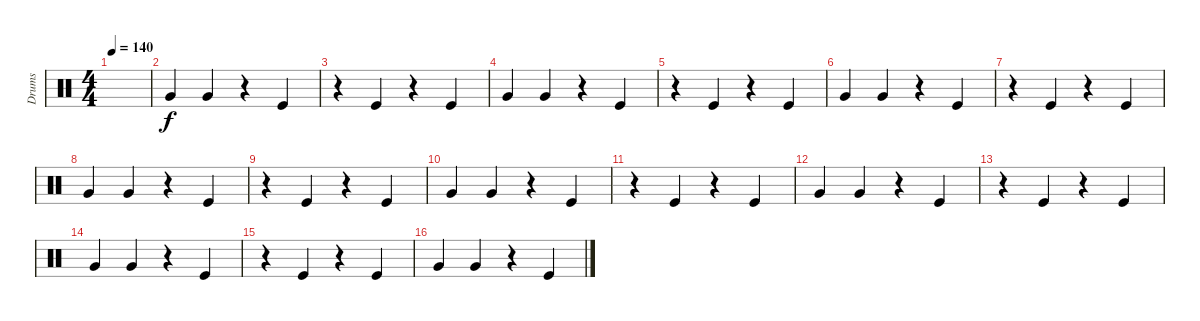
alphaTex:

\track ("Drums" "Drums") {instrument percussion}
\staff {score}
\articulation defaults
\ts (4 4)
\tempo 140
\clef neutral
\ks c
|
"Very Low Tom (hit)".4 "Very Low Tom (hit)".4 r.4 "Kick (hit)".4 |
r.4 "Kick (hit)".4 r.4 "Kick (hit)".4 |
"Very Low Tom (hit)".4 "Very Low Tom (hit)".4 r.4 "Kick (hit)".4 |
r.4 "Kick (hit)".4 r.4 "Kick (hit)".4 |
"Very Low Tom (hit)".4 "Very Low Tom (hit)".4 r.4 "Kick (hit)".4 |
r.4 "Kick (hit)".4 r.4 "Kick (hit)".4 |
"Very Low Tom (hit)".4 "Very Low Tom (hit)".4 r.4 "Kick (hit)".4 |
r.4 "Kick (hit)".4 r.4 "Kick (hit)".4 |
"Very Low Tom (hit)".4 "Very Low Tom (hit)".4 r.4 "Kick (hit)".4 |
r.4 "Kick (hit)".4 r.4 "Kick (hit)".4 |
"Very Low Tom (hit)".4 "Very Low Tom (hit)".4 r.4 "Kick (hit)".4 |
r.4 "Kick (hit)".4 r.4 "Kick (hit)".4 |
"Very Low Tom (hit)".4 "Very Low Tom (hit)".4 r.4 "Kick (hit)".4 |
r.4 "Kick (hit)".4 r.4 "Kick (hit)".4 |
"Very Low Tom (hit)".4 "Very Low Tom (hit)".4 r.4 "Kick (hit)".4
